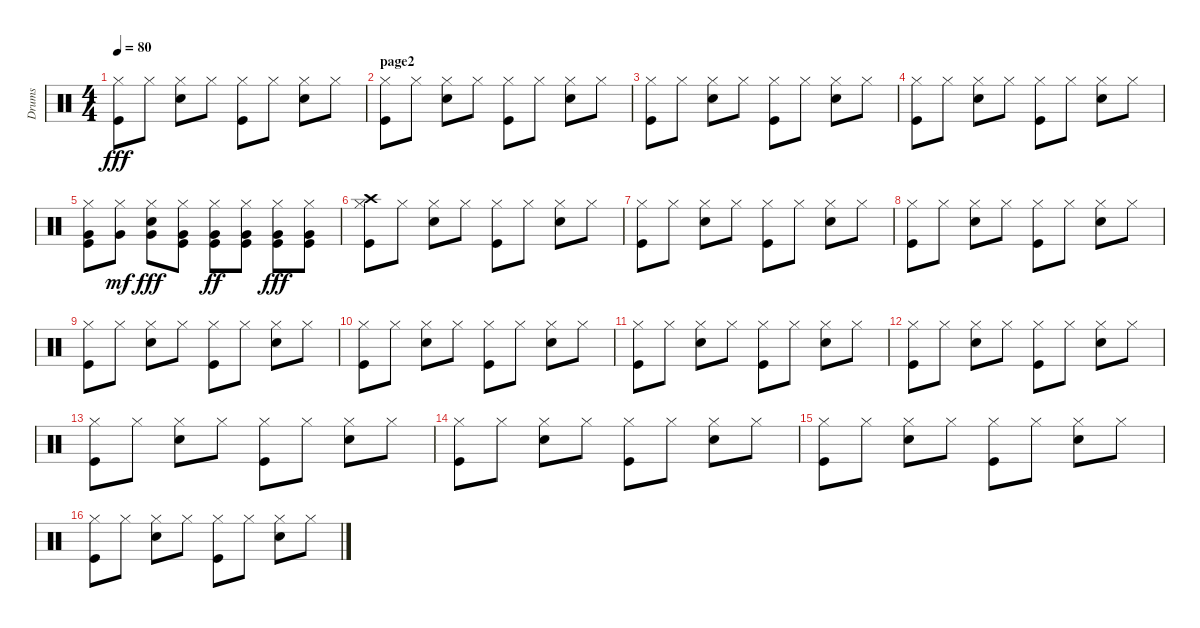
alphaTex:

\track ("Drums" "Drums") {instrument percussion}
\staff {score}
\articulation defaults
\ts (4 4)
\tempo 80
\clef neutral
\ks c
("Hi-Hat (closed)" "Kick (hit)").8{dy fff} "Hi-Hat (closed)".8 ("Hi-Hat (closed)" "Snare (hit) 2").8 "Hi-Hat (closed)".8 ("Hi-Hat (closed)" "Kick (hit)").8 "Hi-Hat (closed)".8 ("Hi-Hat (closed)" "Snare (hit) 2").8 "Hi-Hat (closed)".8 |
\section ("" "page2")
("Hi-Hat (closed)" "Kick (hit)").8 "Hi-Hat (closed)".8 ("Hi-Hat (closed)" "Snare (hit) 2").8 "Hi-Hat (closed)".8 ("Hi-Hat (closed)" "Kick (hit)").8 "Hi-Hat (closed)".8 ("Hi-Hat (closed)" "Snare (hit) 2").8 "Hi-Hat (closed)".8 |
("Hi-Hat (closed)" "Kick (hit)").8 "Hi-Hat (closed)".8 ("Hi-Hat (closed)" "Snare (hit) 2").8 "Hi-Hat (closed)".8 ("Hi-Hat (closed)" "Kick (hit)").8 "Hi-Hat (closed)".8 ("Hi-Hat (closed)" "Snare (hit) 2").8 "Hi-Hat (closed)".8 |
("Hi-Hat (closed)" "Kick (hit)").8 "Hi-Hat (closed)".8 ("Hi-Hat (closed)" "Snare (hit) 2").8 "Hi-Hat (closed)".8 ("Hi-Hat (closed)" "Kick (hit)").8 "Hi-Hat (closed)".8 ("Hi-Hat (closed)" "Snare (hit) 2").8 "Hi-Hat (closed)".8 |
("Hi-Hat (closed)" "Kick (hit)" "Very Low Tom (hit)").8 ("Hi-Hat (closed)" "Very Low Tom (hit)").8{dy mf} ("Hi-Hat (closed)" "Snare (hit) 2" "Very Low Tom (hit)").8{dy fff} ("Hi-Hat (closed)" "Kick (hit)" "Very Low Tom (hit)").8 ("Hi-Hat (closed)" "Kick (hit)" "Very Low Tom (hit)").8{dy ff} ("Hi-Hat (closed)" "Kick (hit)" "Very Low Tom (hit)").8 ("Hi-Hat (closed)" "Kick (hit)" "Very Low Tom (hit)").8{dy fff} ("Hi-Hat (closed)" "Kick (hit)" "Very Low Tom (hit)").8 |
("Hi-Hat (closed)" "Kick (hit)" "Crash high (hit)").8 "Hi-Hat (closed)".8 ("Hi-Hat (closed)" "Snare (hit) 2").8 "Hi-Hat (closed)".8 ("Hi-Hat (closed)" "Kick (hit)").8 "Hi-Hat (closed)".8 ("Hi-Hat (closed)" "Snare (hit) 2").8 "Hi-Hat (closed)".8 |
("Hi-Hat (closed)" "Kick (hit)").8 "Hi-Hat (closed)".8 ("Hi-Hat (closed)" "Snare (hit) 2").8 "Hi-Hat (closed)".8 ("Hi-Hat (closed)" "Kick (hit)").8 "Hi-Hat (closed)".8 ("Hi-Hat (closed)" "Snare (hit) 2").8 "Hi-Hat (closed)".8 |
("Hi-Hat (closed)" "Kick (hit)").8 "Hi-Hat (closed)".8 ("Hi-Hat (closed)" "Snare (hit) 2").8 "Hi-Hat (closed)".8 ("Hi-Hat (closed)" "Kick (hit)").8 "Hi-Hat (closed)".8 ("Hi-Hat (closed)" "Snare (hit) 2").8 "Hi-Hat (closed)".8 |
("Hi-Hat (closed)" "Kick (hit)").8 "Hi-Hat (closed)".8 ("Hi-Hat (closed)" "Snare (hit) 2").8 "Hi-Hat (closed)".8 ("Hi-Hat (closed)" "Kick (hit)").8 "Hi-Hat (closed)".8 ("Hi-Hat (closed)" "Snare (hit) 2").8 "Hi-Hat (closed)".8 |
("Hi-Hat (closed)" "Kick (hit)").8 "Hi-Hat (closed)".8 ("Hi-Hat (closed)" "Snare (hit) 2").8 "Hi-Hat (closed)".8 ("Hi-Hat (closed)" "Kick (hit)").8 "Hi-Hat (closed)".8 ("Hi-Hat (closed)" "Snare (hit) 2").8 "Hi-Hat (closed)".8 |
("Hi-Hat (closed)" "Kick (hit)").8 "Hi-Hat (closed)".8 ("Hi-Hat (closed)" "Snare (hit) 2").8 "Hi-Hat (closed)".8 ("Hi-Hat (closed)" "Kick (hit)").8 "Hi-Hat (closed)".8 ("Hi-Hat (closed)" "Snare (hit) 2").8 "Hi-Hat (closed)".8 |
("Hi-Hat (closed)" "Kick (hit)").8 "Hi-Hat (closed)".8 ("Hi-Hat (closed)" "Snare (hit) 2").8 "Hi-Hat (closed)".8 ("Hi-Hat (closed)" "Kick (hit)").8 "Hi-Hat (closed)".8 ("Hi-Hat (closed)" "Snare (hit) 2").8 "Hi-Hat (closed)".8 |
("Hi-Hat (closed)" "Kick (hit)").8 "Hi-Hat (closed)".8 ("Hi-Hat (closed)" "Snare (hit) 2").8 "Hi-Hat (closed)".8 ("Hi-Hat (closed)" "Kick (hit)").8 "Hi-Hat (closed)".8 ("Hi-Hat (closed)" "Snare (hit) 2").8 "Hi-Hat (closed)".8 |
("Hi-Hat (closed)" "Kick (hit)").8 "Hi-Hat (closed)".8 ("Hi-Hat (closed)" "Snare (hit) 2").8 "Hi-Hat (closed)".8 ("Hi-Hat (closed)" "Kick (hit)").8 "Hi-Hat (closed)".8 ("Hi-Hat (closed)" "Snare (hit) 2").8 "Hi-Hat (closed)".8 |
("Hi-Hat (closed)" "Kick (hit)").8 "Hi-Hat (closed)".8 ("Hi-Hat (closed)" "Snare (hit) 2").8 "Hi-Hat (closed)".8 ("Hi-Hat (closed)" "Kick (hit)").8 "Hi-Hat (closed)".8 ("Hi-Hat (closed)" "Snare (hit) 2").8 "Hi-Hat (closed)".8 |
("Hi-Hat (closed)" "Kick (hit)").8 "Hi-Hat (closed)".8 ("Hi-Hat (closed)" "Snare (hit) 2").8 "Hi-Hat (closed)".8 ("Hi-Hat (closed)" "Kick (hit)").8 "Hi-Hat (closed)".8 ("Hi-Hat (closed)" "Snare (hit) 2").8 "Hi-Hat (closed)".8
